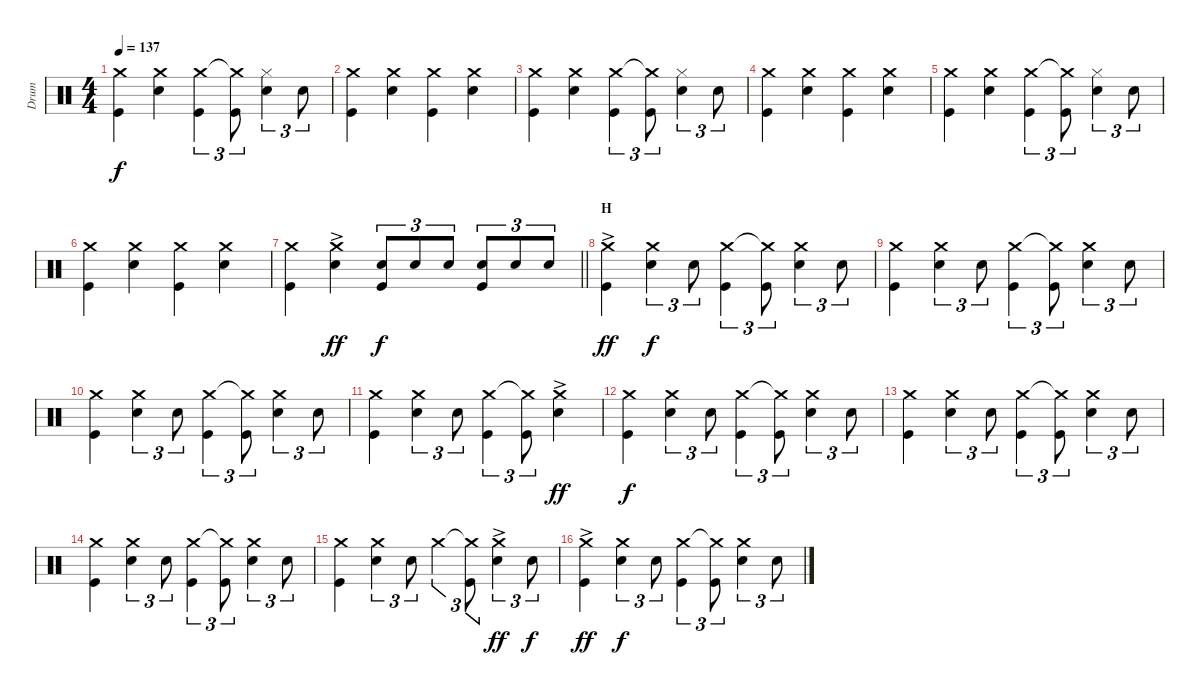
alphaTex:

\track ("Drum" "Drum") {instrument percussion}
\staff {score}
\articulation defaults
\ts (4 4)
\tempo 137
\clef neutral
\ks c
("Crash medium (hit)" "Kick (hit)").4{dy f} ("Crash medium (hit)" "Snare (hit) 2").4 ("Crash medium (hit)" "Kick (hit)").4{tu (3 2)} ("Crash medium (hit)"{t} "Kick (hit)").8{tu (3 2)} ("Hi-Hat (closed)" "Snare (hit) 2").4{tu (3 2)} "Snare (hit) 2".8{tu (3 2)} |
("Crash medium (hit)" "Kick (hit)").4 ("Crash medium (hit)" "Snare (hit) 2").4 ("Crash medium (hit)" "Kick (hit)").4 ("Crash medium (hit)" "Snare (hit) 2").4 |
("Crash medium (hit)" "Kick (hit)").4 ("Crash medium (hit)" "Snare (hit) 2").4 ("Crash medium (hit)" "Kick (hit)").4{tu (3 2)} ("Crash medium (hit)"{t} "Kick (hit)").8{tu (3 2)} ("Hi-Hat (closed)" "Snare (hit) 2").4{tu (3 2)} "Snare (hit) 2".8{tu (3 2)} |
("Crash medium (hit)" "Kick (hit)").4 ("Crash medium (hit)" "Snare (hit) 2").4 ("Crash medium (hit)" "Kick (hit)").4 ("Crash medium (hit)" "Snare (hit) 2").4 |
("Crash medium (hit)" "Kick (hit)").4 ("Crash medium (hit)" "Snare (hit) 2").4 ("Crash medium (hit)" "Kick (hit)").4{tu (3 2)} ("Crash medium (hit)"{t} "Kick (hit)").8{tu (3 2)} ("Hi-Hat (closed)" "Snare (hit) 2").4{tu (3 2)} "Snare (hit) 2".8{tu (3 2)} |
("Crash medium (hit)" "Kick (hit)").4 ("Crash medium (hit)" "Snare (hit) 2").4 ("Crash medium (hit)" "Kick (hit)").4 ("Crash medium (hit)" "Snare (hit) 2").4 |
\barLineRight lightlight
("Crash medium (hit)" "Kick (hit)").4 ("Crash medium (hit)"{ac} "Snare (hit) 2"{ac}).4{dy ff} ("Snare (hit) 2" "Kick (hit)").8{tu (3 2) dy f} "Snare (hit) 2".8{tu (3 2)} "Snare (hit) 2".8{tu (3 2)} ("Snare (hit) 2" "Kick (hit)").8{tu (3 2)} "Snare (hit) 2".8{tu (3 2)} "Snare (hit) 2".8{tu (3 2)} |
\section ("" "H")
("Crash medium (hit)"{ac} "Kick (hit)"{ac}).4{dy ff} ("Crash medium (hit)" "Snare (hit) 2").4{tu (3 2) dy f} "Snare (hit) 2".8{tu (3 2)} ("Crash medium (hit)" "Kick (hit)").4{tu (3 2)} ("Crash medium (hit)"{t} "Kick (hit)").8{tu (3 2)} ("Crash medium (hit)" "Snare (hit) 2").4{tu (3 2)} "Snare (hit) 2".8{tu (3 2)} |
("Crash medium (hit)" "Kick (hit)").4 ("Crash medium (hit)" "Snare (hit) 2").4{tu (3 2)} "Snare (hit) 2".8{tu (3 2)} ("Crash medium (hit)" "Kick (hit)").4{tu (3 2)} ("Crash medium (hit)"{t} "Kick (hit)").8{tu (3 2)} ("Crash medium (hit)" "Snare (hit) 2").4{tu (3 2)} "Snare (hit) 2".8{tu (3 2)} |
("Crash medium (hit)" "Kick (hit)").4 ("Crash medium (hit)" "Snare (hit) 2").4{tu (3 2)} "Snare (hit) 2".8{tu (3 2)} ("Crash medium (hit)" "Kick (hit)").4{tu (3 2)} ("Crash medium (hit)"{t} "Kick (hit)").8{tu (3 2)} ("Crash medium (hit)" "Snare (hit) 2").4{tu (3 2)} "Snare (hit) 2".8{tu (3 2)} |
("Crash medium (hit)" "Kick (hit)").4 ("Crash medium (hit)" "Snare (hit) 2").4{tu (3 2)} "Snare (hit) 2".8{tu (3 2)} ("Crash medium (hit)" "Kick (hit)").4{tu (3 2)} ("Crash medium (hit)"{t} "Kick (hit)").8{tu (3 2)} ("Crash medium (hit)"{ac} "Snare (hit) 2"{ac}).4{dy ff} |
("Crash medium (hit)" "Kick (hit)").4{dy f} ("Crash medium (hit)" "Snare (hit) 2").4{tu (3 2)} "Snare (hit) 2".8{tu (3 2)} ("Crash medium (hit)" "Kick (hit)").4{tu (3 2)} ("Crash medium (hit)"{t} "Kick (hit)").8{tu (3 2)} ("Crash medium (hit)" "Snare (hit) 2").4{tu (3 2)} "Snare (hit) 2".8{tu (3 2)} |
("Crash medium (hit)" "Kick (hit)").4 ("Crash medium (hit)" "Snare (hit) 2").4{tu (3 2)} "Snare (hit) 2".8{tu (3 2)} ("Crash medium (hit)" "Kick (hit)").4{tu (3 2)} ("Crash medium (hit)"{t} "Kick (hit)").8{tu (3 2)} ("Crash medium (hit)" "Snare (hit) 2").4{tu (3 2)} "Snare (hit) 2".8{tu (3 2)} |
("Crash medium (hit)" "Kick (hit)").4 ("Crash medium (hit)" "Snare (hit) 2").4{tu (3 2)} "Snare (hit) 2".8{tu (3 2)} ("Crash medium (hit)" "Kick (hit)").4{tu (3 2)} ("Crash medium (hit)"{t} "Kick (hit)").8{tu (3 2)} ("Crash medium (hit)" "Snare (hit) 2").4{tu (3 2)} "Snare (hit) 2".8{tu (3 2)} |
("Crash medium (hit)" "Kick (hit)").4 ("Crash medium (hit)" "Snare (hit) 2").4{tu (3 2)} "Snare (hit) 2".8{tu (3 2)} "Crash medium (hit)".4{tu (3 2)} ("Crash medium (hit)"{t} "Kick (hit)").8{tu (3 2)} ("Crash medium (hit)"{ac} "Snare (hit) 2"{ac}).4{tu (3 2) dy ff} "Snare (hit) 2".8{tu (3 2) dy f} |
("Crash medium (hit)"{ac} "Kick (hit)"{ac}).4{dy ff} ("Crash medium (hit)" "Snare (hit) 2").4{tu (3 2) dy f} "Snare (hit) 2".8{tu (3 2)} ("Crash medium (hit)" "Kick (hit)").4{tu (3 2)} ("Crash medium (hit)"{t} "Kick (hit)").8{tu (3 2)} ("Crash medium (hit)" "Snare (hit) 2").4{tu (3 2)} "Snare (hit) 2".8{tu (3 2)}
